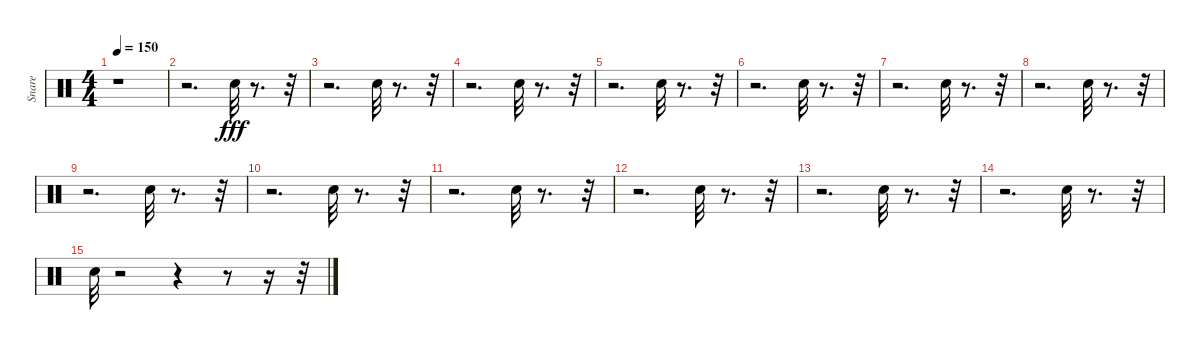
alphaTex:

\track ("Snare" "Snare") {instrument percussion}
\staff {score}
\articulation defaults
\ts (4 4)
\tempo 150
\clef neutral
\ks c
r.1{dy fff} |
r.2{d} "Snare (hit) 2".32 r.8{d} r.32 |
r.2{d} "Snare (hit) 2".32 r.8{d} r.32 |
r.2{d} "Snare (hit) 2".32 r.8{d} r.32 |
r.2{d} "Snare (hit) 2".32 r.8{d} r.32 |
r.2{d} "Snare (hit) 2".32 r.8{d} r.32 |
r.2{d} "Snare (hit) 2".32 r.8{d} r.32 |
r.2{d} "Snare (hit) 2".32 r.8{d} r.32 |
r.2{d} "Snare (hit) 2".32 r.8{d} r.32 |
r.2{d} "Snare (hit) 2".32 r.8{d} r.32 |
r.2{d} "Snare (hit) 2".32 r.8{d} r.32 |
r.2{d} "Snare (hit) 2".32 r.8{d} r.32 |
r.2{d} "Snare (hit) 2".32 r.8{d} r.32 |
r.2{d} "Snare (hit) 2".32 r.8{d} r.32 |
"Snare (hit) 2".32 r.2 r.4 r.8 r.16 r.32
